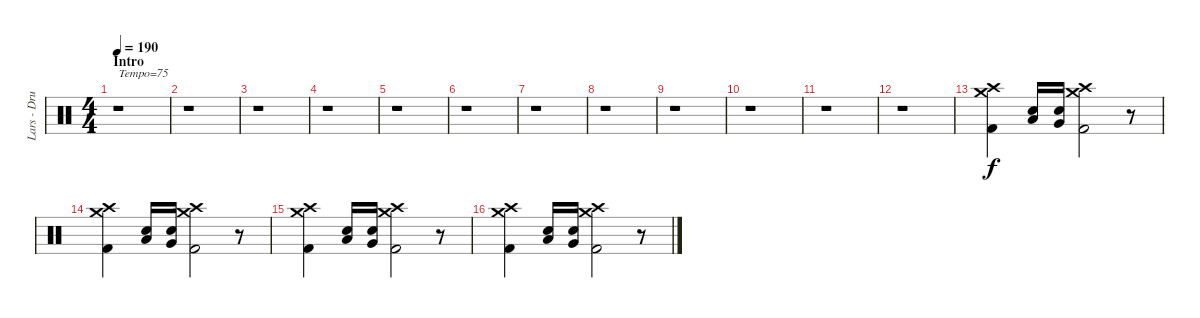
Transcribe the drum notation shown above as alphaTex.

\track ("Lars - Drums" "Lars - Dru") {instrument percussion}
\staff {score}
\articulation defaults
\ts (4 4)
\section ("" "Intro")
\tempo 190
\tempo 75
\tempo 190
\clef neutral
\ks c
r.1{txt "Tempo=75" dy f} |
r.1 |
r.1 |
r.1 |
r.1 |
r.1 |
r.1 |
r.1 |
r.1 |
r.1 |
r.1 |
r.1 |
("Crash high (hit)" "Crash medium (hit)" "Kick (hit) 2").4 ("Low Tom (hit)" "Snare (hit) 2").16 ("Very Low Tom (hit)" "Snare (hit) 2").16 ("Crash high (hit)" "Crash medium (hit)" "Kick (hit) 2").2 r.8 |
("Crash high (hit)" "Crash medium (hit)" "Kick (hit) 2").4 ("Low Tom (hit)" "Snare (hit) 2").16 ("Very Low Tom (hit)" "Snare (hit) 2").16 ("Crash high (hit)" "Crash medium (hit)" "Kick (hit) 2").2 r.8 |
("Crash high (hit)" "Crash medium (hit)" "Kick (hit) 2").4 ("Low Tom (hit)" "Snare (hit) 2").16 ("Very Low Tom (hit)" "Snare (hit) 2").16 ("Crash high (hit)" "Crash medium (hit)" "Kick (hit) 2").2 r.8 |
("Crash high (hit)" "Crash medium (hit)" "Kick (hit) 2").4 ("Low Tom (hit)" "Snare (hit) 2").16 ("Very Low Tom (hit)" "Snare (hit) 2").16 ("Crash high (hit)" "Crash medium (hit)" "Kick (hit) 2").2 r.8
